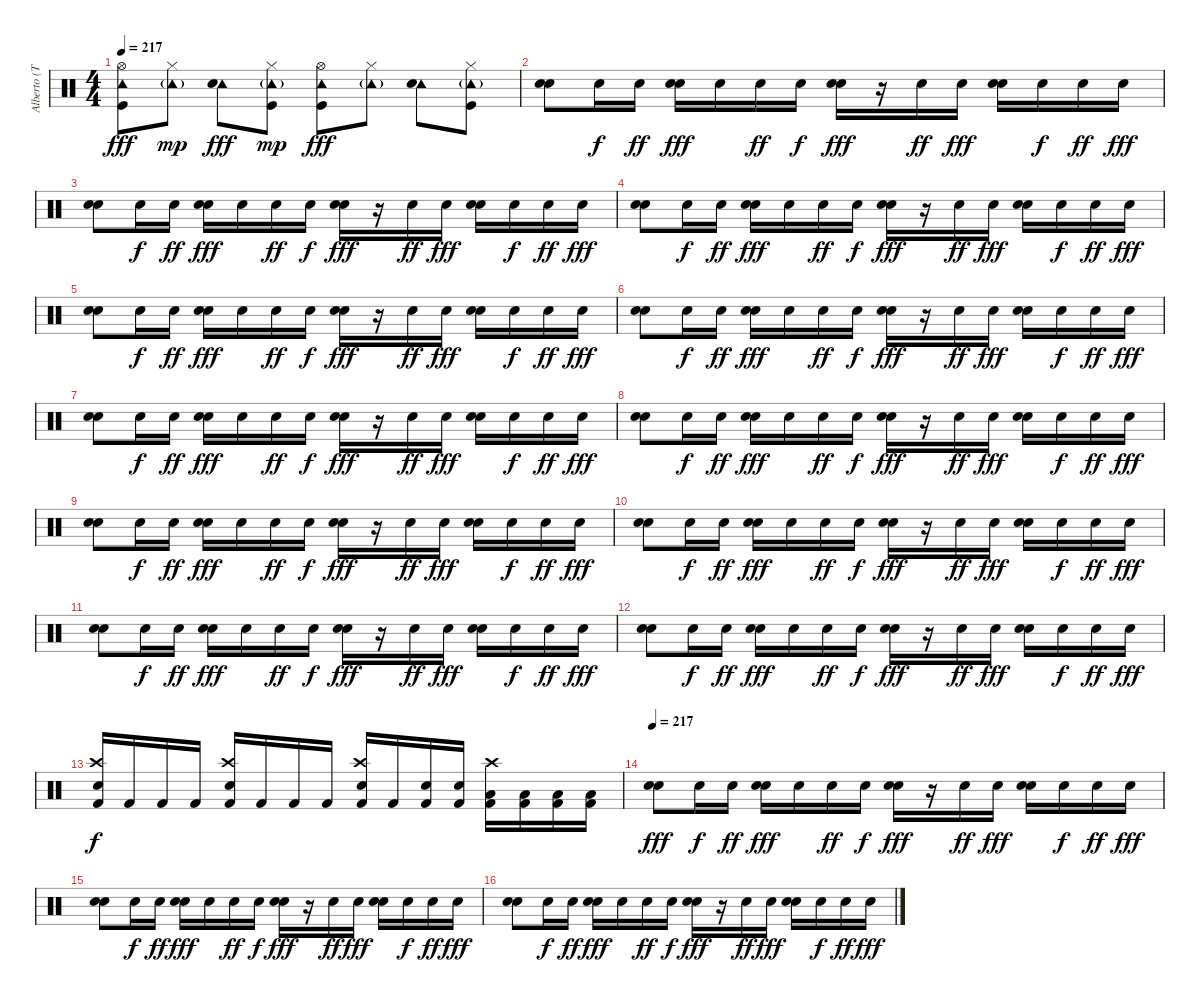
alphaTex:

\track ("Alberto (Toshi)" "Alberto (T") {instrument percussion}
\staff {score}
\articulation defaults
\ts (4 4)
\tempo 217
\clef neutral
\ks c
("Tambourine (hit)" "Hi-Hat (open)" "Kick (hit)").8{dy fff} ("Tambourine (hit)"{g} "Hi-Hat (closed)").8{dy mp} ("Tambourine (hit)" "Electric Snare (hit)").8{dy fff} ("Tambourine (hit)"{g} "Hi-Hat (closed)" "Kick (hit)").8{dy mp} ("Tambourine (hit)" "Hi-Hat (open)" "Kick (hit)").8{dy fff} ("Tambourine (hit)"{g} "Hi-Hat (closed)").8 ("Tambourine (hit)" "Electric Snare (hit)").8 ("Tambourine (hit)"{g} "Hi-Hat (closed)" "Kick (hit)").8 |
("Electric Snare (hit)" "Electric Snare (hit)").8 "Electric Snare (hit)".16{dy f} "Electric Snare (hit)".16{dy ff} ("Electric Snare (hit)" "Electric Snare (hit)").16{dy fff} "Electric Snare (hit)".16 "Electric Snare (hit)".16{dy ff} "Electric Snare (hit)".16{dy f} ("Electric Snare (hit)" "Electric Snare (hit)").16{dy fff} r.16 "Electric Snare (hit)".16{dy ff} "Electric Snare (hit)".16{dy fff} ("Electric Snare (hit)" "Electric Snare (hit)").16 "Electric Snare (hit)".16{dy f} "Electric Snare (hit)".16{dy ff} "Electric Snare (hit)".16{dy fff} |
("Electric Snare (hit)" "Electric Snare (hit)").8 "Electric Snare (hit)".16{dy f} "Electric Snare (hit)".16{dy ff} ("Electric Snare (hit)" "Electric Snare (hit)").16{dy fff} "Electric Snare (hit)".16 "Electric Snare (hit)".16{dy ff} "Electric Snare (hit)".16{dy f} ("Electric Snare (hit)" "Electric Snare (hit)").16{dy fff} r.16 "Electric Snare (hit)".16{dy ff} "Electric Snare (hit)".16{dy fff} ("Electric Snare (hit)" "Electric Snare (hit)").16 "Electric Snare (hit)".16{dy f} "Electric Snare (hit)".16{dy ff} "Electric Snare (hit)".16{dy fff} |
("Electric Snare (hit)" "Electric Snare (hit)").8 "Electric Snare (hit)".16{dy f} "Electric Snare (hit)".16{dy ff} ("Electric Snare (hit)" "Electric Snare (hit)").16{dy fff} "Electric Snare (hit)".16 "Electric Snare (hit)".16{dy ff} "Electric Snare (hit)".16{dy f} ("Electric Snare (hit)" "Electric Snare (hit)").16{dy fff} r.16 "Electric Snare (hit)".16{dy ff} "Electric Snare (hit)".16{dy fff} ("Electric Snare (hit)" "Electric Snare (hit)").16 "Electric Snare (hit)".16{dy f} "Electric Snare (hit)".16{dy ff} "Electric Snare (hit)".16{dy fff} |
("Electric Snare (hit)" "Electric Snare (hit)").8 "Electric Snare (hit)".16{dy f} "Electric Snare (hit)".16{dy ff} ("Electric Snare (hit)" "Electric Snare (hit)").16{dy fff} "Electric Snare (hit)".16 "Electric Snare (hit)".16{dy ff} "Electric Snare (hit)".16{dy f} ("Electric Snare (hit)" "Electric Snare (hit)").16{dy fff} r.16 "Electric Snare (hit)".16{dy ff} "Electric Snare (hit)".16{dy fff} ("Electric Snare (hit)" "Electric Snare (hit)").16 "Electric Snare (hit)".16{dy f} "Electric Snare (hit)".16{dy ff} "Electric Snare (hit)".16{dy fff} |
("Electric Snare (hit)" "Electric Snare (hit)").8 "Electric Snare (hit)".16{dy f} "Electric Snare (hit)".16{dy ff} ("Electric Snare (hit)" "Electric Snare (hit)").16{dy fff} "Electric Snare (hit)".16 "Electric Snare (hit)".16{dy ff} "Electric Snare (hit)".16{dy f} ("Electric Snare (hit)" "Electric Snare (hit)").16{dy fff} r.16 "Electric Snare (hit)".16{dy ff} "Electric Snare (hit)".16{dy fff} ("Electric Snare (hit)" "Electric Snare (hit)").16 "Electric Snare (hit)".16{dy f} "Electric Snare (hit)".16{dy ff} "Electric Snare (hit)".16{dy fff} |
("Electric Snare (hit)" "Electric Snare (hit)").8 "Electric Snare (hit)".16{dy f} "Electric Snare (hit)".16{dy ff} ("Electric Snare (hit)" "Electric Snare (hit)").16{dy fff} "Electric Snare (hit)".16 "Electric Snare (hit)".16{dy ff} "Electric Snare (hit)".16{dy f} ("Electric Snare (hit)" "Electric Snare (hit)").16{dy fff} r.16 "Electric Snare (hit)".16{dy ff} "Electric Snare (hit)".16{dy fff} ("Electric Snare (hit)" "Electric Snare (hit)").16 "Electric Snare (hit)".16{dy f} "Electric Snare (hit)".16{dy ff} "Electric Snare (hit)".16{dy fff} |
("Electric Snare (hit)" "Electric Snare (hit)").8 "Electric Snare (hit)".16{dy f} "Electric Snare (hit)".16{dy ff} ("Electric Snare (hit)" "Electric Snare (hit)").16{dy fff} "Electric Snare (hit)".16 "Electric Snare (hit)".16{dy ff} "Electric Snare (hit)".16{dy f} ("Electric Snare (hit)" "Electric Snare (hit)").16{dy fff} r.16 "Electric Snare (hit)".16{dy ff} "Electric Snare (hit)".16{dy fff} ("Electric Snare (hit)" "Electric Snare (hit)").16 "Electric Snare (hit)".16{dy f} "Electric Snare (hit)".16{dy ff} "Electric Snare (hit)".16{dy fff} |
("Electric Snare (hit)" "Electric Snare (hit)").8 "Electric Snare (hit)".16{dy f} "Electric Snare (hit)".16{dy ff} ("Electric Snare (hit)" "Electric Snare (hit)").16{dy fff} "Electric Snare (hit)".16 "Electric Snare (hit)".16{dy ff} "Electric Snare (hit)".16{dy f} ("Electric Snare (hit)" "Electric Snare (hit)").16{dy fff} r.16 "Electric Snare (hit)".16{dy ff} "Electric Snare (hit)".16{dy fff} ("Electric Snare (hit)" "Electric Snare (hit)").16 "Electric Snare (hit)".16{dy f} "Electric Snare (hit)".16{dy ff} "Electric Snare (hit)".16{dy fff} |
("Electric Snare (hit)" "Electric Snare (hit)").8 "Electric Snare (hit)".16{dy f} "Electric Snare (hit)".16{dy ff} ("Electric Snare (hit)" "Electric Snare (hit)").16{dy fff} "Electric Snare (hit)".16 "Electric Snare (hit)".16{dy ff} "Electric Snare (hit)".16{dy f} ("Electric Snare (hit)" "Electric Snare (hit)").16{dy fff} r.16 "Electric Snare (hit)".16{dy ff} "Electric Snare (hit)".16{dy fff} ("Electric Snare (hit)" "Electric Snare (hit)").16 "Electric Snare (hit)".16{dy f} "Electric Snare (hit)".16{dy ff} "Electric Snare (hit)".16{dy fff} |
("Electric Snare (hit)" "Electric Snare (hit)").8 "Electric Snare (hit)".16{dy f} "Electric Snare (hit)".16{dy ff} ("Electric Snare (hit)" "Electric Snare (hit)").16{dy fff} "Electric Snare (hit)".16 "Electric Snare (hit)".16{dy ff} "Electric Snare (hit)".16{dy f} ("Electric Snare (hit)" "Electric Snare (hit)").16{dy fff} r.16 "Electric Snare (hit)".16{dy ff} "Electric Snare (hit)".16{dy fff} ("Electric Snare (hit)" "Electric Snare (hit)").16 "Electric Snare (hit)".16{dy f} "Electric Snare (hit)".16{dy ff} "Electric Snare (hit)".16{dy fff} |
("Electric Snare (hit)" "Electric Snare (hit)").8 "Electric Snare (hit)".16{dy f} "Electric Snare (hit)".16{dy ff} ("Electric Snare (hit)" "Electric Snare (hit)").16{dy fff} "Electric Snare (hit)".16 "Electric Snare (hit)".16{dy ff} "Electric Snare (hit)".16{dy f} ("Electric Snare (hit)" "Electric Snare (hit)").16{dy fff} r.16 "Electric Snare (hit)".16{dy ff} "Electric Snare (hit)".16{dy fff} ("Electric Snare (hit)" "Electric Snare (hit)").16 "Electric Snare (hit)".16{dy f} "Electric Snare (hit)".16{dy ff} "Electric Snare (hit)".16{dy fff} |
("Crash high (hit)" "Electric Snare (hit)" "Kick (hit) 2").16{dy f} "Kick (hit) 2".16 "Kick (hit) 2".16 "Kick (hit) 2".16 ("Crash high (hit)" "Electric Snare (hit)" "Kick (hit) 2").16 "Kick (hit) 2".16 "Kick (hit) 2".16 "Kick (hit) 2".16 ("Crash high (hit)" "Electric Snare (hit)" "Kick (hit) 2").16 "Kick (hit) 2".16 ("Electric Snare (hit)" "Kick (hit) 2").16 ("Electric Snare (hit)" "Kick (hit) 2").16 ("Crash high (hit)" "Low Tom (hit)" "Kick (hit) 2").16 ("Low Tom (hit)" "Kick (hit) 2").16 ("Low Floor Tom (hit)" "Kick (hit) 2").16 ("Low Floor Tom (hit)" "Kick (hit) 2").16 |
\tempo 217
("Electric Snare (hit)" "Electric Snare (hit)").8{dy fff} "Electric Snare (hit)".16{dy f} "Electric Snare (hit)".16{dy ff} ("Electric Snare (hit)" "Electric Snare (hit)").16{dy fff} "Electric Snare (hit)".16 "Electric Snare (hit)".16{dy ff} "Electric Snare (hit)".16{dy f} ("Electric Snare (hit)" "Electric Snare (hit)").16{dy fff} r.16 "Electric Snare (hit)".16{dy ff} "Electric Snare (hit)".16{dy fff} ("Electric Snare (hit)" "Electric Snare (hit)").16 "Electric Snare (hit)".16{dy f} "Electric Snare (hit)".16{dy ff} "Electric Snare (hit)".16{dy fff} |
("Electric Snare (hit)" "Electric Snare (hit)").8 "Electric Snare (hit)".16{dy f} "Electric Snare (hit)".16{dy ff} ("Electric Snare (hit)" "Electric Snare (hit)").16{dy fff} "Electric Snare (hit)".16 "Electric Snare (hit)".16{dy ff} "Electric Snare (hit)".16{dy f} ("Electric Snare (hit)" "Electric Snare (hit)").16{dy fff} r.16 "Electric Snare (hit)".16{dy ff} "Electric Snare (hit)".16{dy fff} ("Electric Snare (hit)" "Electric Snare (hit)").16 "Electric Snare (hit)".16{dy f} "Electric Snare (hit)".16{dy ff} "Electric Snare (hit)".16{dy fff} |
("Electric Snare (hit)" "Electric Snare (hit)").8 "Electric Snare (hit)".16{dy f} "Electric Snare (hit)".16{dy ff} ("Electric Snare (hit)" "Electric Snare (hit)").16{dy fff} "Electric Snare (hit)".16 "Electric Snare (hit)".16{dy ff} "Electric Snare (hit)".16{dy f} ("Electric Snare (hit)" "Electric Snare (hit)").16{dy fff} r.16 "Electric Snare (hit)".16{dy ff} "Electric Snare (hit)".16{dy fff} ("Electric Snare (hit)" "Electric Snare (hit)").16 "Electric Snare (hit)".16{dy f} "Electric Snare (hit)".16{dy ff} "Electric Snare (hit)".16{dy fff}
